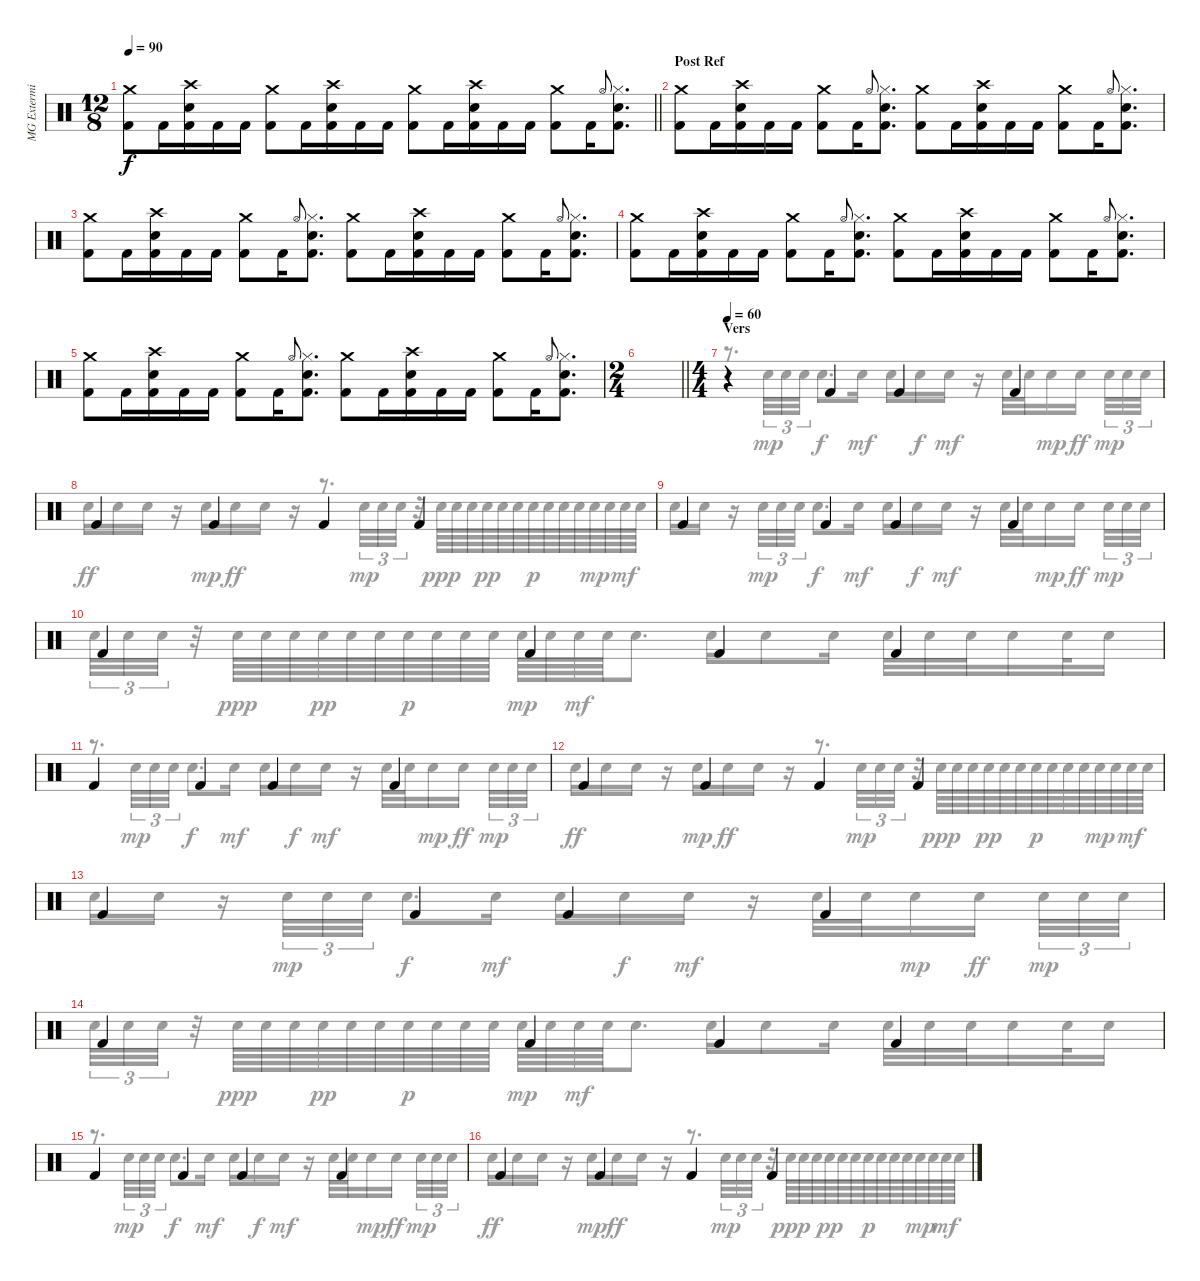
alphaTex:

\track ("MG Exterminator" "MG Extermi") {instrument percussion}
\staff {score}
\articulation defaults
\voice
\ts (12 8)
\tempo 90
\clef neutral
\barLineRight lightlight
\ks c
("Crash medium (hit)" "Kick (hit) 2").8{dy f} "Kick (hit) 2".16 ("Crash high (hit)" "Snare (hit) 2" "Kick (hit) 2").16 "Kick (hit) 2".16 "Kick (hit) 2".16 ("Crash medium (hit)" "Kick (hit) 2").8 "Kick (hit) 2".16 ("Crash high (hit)" "Snare (hit) 2" "Kick (hit) 2").16 "Kick (hit) 2".16 "Kick (hit) 2".16 ("Crash medium (hit)" "Kick (hit) 2").8 "Kick (hit) 2".16 ("Crash high (hit)" "Snare (hit) 2" "Kick (hit) 2").16 "Kick (hit) 2".16 "Kick (hit) 2".16 ("Crash medium (hit)" "Kick (hit) 2").8 "Kick (hit) 2".16 "Hi-Hat (open)".8{gr onbeat} ("Hi-Hat (closed)" "Snare (hit) 2" "Kick (hit) 2").8{d} |
\section ("" "Post Ref")
("Crash medium (hit)" "Kick (hit) 2").8 "Kick (hit) 2".16 ("Crash high (hit)" "Snare (hit) 2" "Kick (hit) 2").16 "Kick (hit) 2".16 "Kick (hit) 2".16 ("Crash medium (hit)" "Kick (hit) 2").8 "Kick (hit) 2".16 "Hi-Hat (open)".8{gr onbeat} ("Hi-Hat (closed)" "Snare (hit) 2" "Kick (hit) 2").8{d} ("Crash medium (hit)" "Kick (hit) 2").8 "Kick (hit) 2".16 ("Crash high (hit)" "Snare (hit) 2" "Kick (hit) 2").16 "Kick (hit) 2".16 "Kick (hit) 2".16 ("Crash medium (hit)" "Kick (hit) 2").8 "Kick (hit) 2".16 "Hi-Hat (open)".8{gr onbeat} ("Hi-Hat (closed)" "Snare (hit) 2" "Kick (hit) 2").8{d} |
("Crash medium (hit)" "Kick (hit) 2").8 "Kick (hit) 2".16 ("Crash high (hit)" "Snare (hit) 2" "Kick (hit) 2").16 "Kick (hit) 2".16 "Kick (hit) 2".16 ("Crash medium (hit)" "Kick (hit) 2").8 "Kick (hit) 2".16 "Hi-Hat (open)".8{gr onbeat} ("Hi-Hat (closed)" "Snare (hit) 2" "Kick (hit) 2").8{d} ("Crash medium (hit)" "Kick (hit) 2").8 "Kick (hit) 2".16 ("Crash high (hit)" "Snare (hit) 2" "Kick (hit) 2").16 "Kick (hit) 2".16 "Kick (hit) 2".16 ("Crash medium (hit)" "Kick (hit) 2").8 "Kick (hit) 2".16 "Hi-Hat (open)".8{gr onbeat} ("Hi-Hat (closed)" "Snare (hit) 2" "Kick (hit) 2").8{d} |
("Crash medium (hit)" "Kick (hit) 2").8 "Kick (hit) 2".16 ("Crash high (hit)" "Snare (hit) 2" "Kick (hit) 2").16 "Kick (hit) 2".16 "Kick (hit) 2".16 ("Crash medium (hit)" "Kick (hit) 2").8 "Kick (hit) 2".16 "Hi-Hat (open)".8{gr onbeat} ("Hi-Hat (closed)" "Snare (hit) 2" "Kick (hit) 2").8{d} ("Crash medium (hit)" "Kick (hit) 2").8 "Kick (hit) 2".16 ("Crash high (hit)" "Snare (hit) 2" "Kick (hit) 2").16 "Kick (hit) 2".16 "Kick (hit) 2".16 ("Crash medium (hit)" "Kick (hit) 2").8 "Kick (hit) 2".16 "Hi-Hat (open)".8{gr onbeat} ("Hi-Hat (closed)" "Snare (hit) 2" "Kick (hit) 2").8{d} |
("Crash medium (hit)" "Kick (hit) 2").8 "Kick (hit) 2".16 ("Crash high (hit)" "Snare (hit) 2" "Kick (hit) 2").16 "Kick (hit) 2".16 "Kick (hit) 2".16 ("Crash medium (hit)" "Kick (hit) 2").8 "Kick (hit) 2".16 "Hi-Hat (open)".8{gr onbeat} ("Hi-Hat (closed)" "Snare (hit) 2" "Kick (hit) 2").8{d} ("Crash medium (hit)" "Kick (hit) 2").8 "Kick (hit) 2".16 ("Crash high (hit)" "Snare (hit) 2" "Kick (hit) 2").16 "Kick (hit) 2".16 "Kick (hit) 2".16 ("Crash medium (hit)" "Kick (hit) 2").8 "Kick (hit) 2".16 "Hi-Hat (open)".8{gr onbeat} ("Hi-Hat (closed)" "Snare (hit) 2" "Kick (hit) 2").8{d} |
\ts (2 4)
\barLineRight lightlight
|
\ts (4 4)
\section ("" "Vers")
\tempo 60
r.4 "Kick (hit) 2".4 "Kick (hit) 2".4 "Kick (hit) 2".4 |
"Kick (hit) 2".4 "Kick (hit) 2".4 "Kick (hit) 2".4 "Kick (hit) 2".4 |
"Kick (hit) 2".4 "Kick (hit) 2".4 "Kick (hit) 2".4 "Kick (hit) 2".4 |
"Kick (hit) 2".4 "Kick (hit) 2".4 "Kick (hit) 2".4 "Kick (hit) 2".4 |
"Kick (hit) 2".4 "Kick (hit) 2".4 "Kick (hit) 2".4 "Kick (hit) 2".4 |
"Kick (hit) 2".4 "Kick (hit) 2".4 "Kick (hit) 2".4 "Kick (hit) 2".4 |
"Kick (hit) 2".4 "Kick (hit) 2".4 "Kick (hit) 2".4 "Kick (hit) 2".4 |
"Kick (hit) 2".4 "Kick (hit) 2".4 "Kick (hit) 2".4 "Kick (hit) 2".4 |
"Kick (hit) 2".4 "Kick (hit) 2".4 "Kick (hit) 2".4 "Kick (hit) 2".4 |
"Kick (hit) 2".4 "Kick (hit) 2".4 "Kick (hit) 2".4 "Kick (hit) 2".4
\voice
\clef neutral
\ottava regular
\simile none
\barLineRight lightlight
\ks c
|
|
|
|
|
\barLineRight lightlight
|
r.8{d} "Snare (hit) 2".32{tu (3 2) dy mp} "Snare (hit) 2".32{tu (3 2)} "Snare (hit) 2".32{tu (3 2)} "Snare (hit) 2".8{d dy f} "Snare (hit) 2".16{dy mf} "Snare (hit) 2".16 "Snare (hit) 2".16{dy f} "Snare (hit) 2".16{dy mf} r.16 "Snare (hit) 2".32 "Snare (hit) 2".32 "Snare (hit) 2".16{dy mp} "Snare (hit) 2".16{dy ff beam splitsecondary} "Snare (hit) 2".32{tu (3 2) dy mp} "Snare (hit) 2".32{tu (3 2)} "Snare (hit) 2".32{tu (3 2)} |
"Snare (hit) 2".16{dy ff} "Snare (hit) 2".16 "Snare (hit) 2".16 r.16 "Snare (hit) 2".16{dy mp} "Snare (hit) 2".16{dy ff} "Snare (hit) 2".16 r.16 r.8{d} "Snare (hit) 2".32{tu (3 2) dy mp} "Snare (hit) 2".32{tu (3 2)} "Snare (hit) 2".32{tu (3 2)} r.32 "Snare (hit) 2".64{dy ppp} "Snare (hit) 2".64 "Snare (hit) 2".64 "Snare (hit) 2".64{dy pp} "Snare (hit) 2".64 "Snare (hit) 2".64 "Snare (hit) 2".64{dy p} "Snare (hit) 2".64 "Snare (hit) 2".64 "Snare (hit) 2".64 "Snare (hit) 2".64{dy mp} "Snare (hit) 2".64 "Snare (hit) 2".64{dy mf} "Snare (hit) 2".64 |
"Snare (hit) 2".16 "Snare (hit) 2".16 r.16 "Snare (hit) 2".32{tu (3 2) dy mp} "Snare (hit) 2".32{tu (3 2)} "Snare (hit) 2".32{tu (3 2)} "Snare (hit) 2".8{d dy f} "Snare (hit) 2".16{dy mf} "Snare (hit) 2".16 "Snare (hit) 2".16{dy f} "Snare (hit) 2".16{dy mf} r.16 "Snare (hit) 2".32 "Snare (hit) 2".32 "Snare (hit) 2".16{dy mp} "Snare (hit) 2".16{dy ff beam splitsecondary} "Snare (hit) 2".32{tu (3 2) dy mp} "Snare (hit) 2".32{tu (3 2)} "Snare (hit) 2".32{tu (3 2)} |
"Snare (hit) 2".32{tu (3 2)} "Snare (hit) 2".32{tu (3 2)} "Snare (hit) 2".32{tu (3 2)} r.32 "Snare (hit) 2".64{dy ppp} "Snare (hit) 2".64 "Snare (hit) 2".64 "Snare (hit) 2".64{dy pp} "Snare (hit) 2".64 "Snare (hit) 2".64 "Snare (hit) 2".64{dy p} "Snare (hit) 2".64 "Snare (hit) 2".64 "Snare (hit) 2".64 "Snare (hit) 2".64{dy mp} "Snare (hit) 2".64 "Snare (hit) 2".64{dy mf} "Snare (hit) 2".64 "Snare (hit) 2".8{d} "Snare (hit) 2".16 "Snare (hit) 2".8 "Snare (hit) 2".16 "Snare (hit) 2".32 "Snare (hit) 2".32 "Snare (hit) 2".32 "Snare (hit) 2".16 "Snare (hit) 2".32 "Snare (hit) 2".16 |
r.8{d} "Snare (hit) 2".32{tu (3 2) dy mp} "Snare (hit) 2".32{tu (3 2)} "Snare (hit) 2".32{tu (3 2)} "Snare (hit) 2".8{d dy f} "Snare (hit) 2".16{dy mf} "Snare (hit) 2".16 "Snare (hit) 2".16{dy f} "Snare (hit) 2".16{dy mf} r.16 "Snare (hit) 2".32 "Snare (hit) 2".32 "Snare (hit) 2".16{dy mp} "Snare (hit) 2".16{dy ff beam splitsecondary} "Snare (hit) 2".32{tu (3 2) dy mp} "Snare (hit) 2".32{tu (3 2)} "Snare (hit) 2".32{tu (3 2)} |
"Snare (hit) 2".16{dy ff} "Snare (hit) 2".16 "Snare (hit) 2".16 r.16 "Snare (hit) 2".16{dy mp} "Snare (hit) 2".16{dy ff} "Snare (hit) 2".16 r.16 r.8{d} "Snare (hit) 2".32{tu (3 2) dy mp} "Snare (hit) 2".32{tu (3 2)} "Snare (hit) 2".32{tu (3 2)} r.32 "Snare (hit) 2".64{dy ppp} "Snare (hit) 2".64 "Snare (hit) 2".64 "Snare (hit) 2".64{dy pp} "Snare (hit) 2".64 "Snare (hit) 2".64 "Snare (hit) 2".64{dy p} "Snare (hit) 2".64 "Snare (hit) 2".64 "Snare (hit) 2".64 "Snare (hit) 2".64{dy mp} "Snare (hit) 2".64 "Snare (hit) 2".64{dy mf} "Snare (hit) 2".64 |
"Snare (hit) 2".16 "Snare (hit) 2".16 r.16 "Snare (hit) 2".32{tu (3 2) dy mp} "Snare (hit) 2".32{tu (3 2)} "Snare (hit) 2".32{tu (3 2)} "Snare (hit) 2".8{d dy f} "Snare (hit) 2".16{dy mf} "Snare (hit) 2".16 "Snare (hit) 2".16{dy f} "Snare (hit) 2".16{dy mf} r.16 "Snare (hit) 2".32 "Snare (hit) 2".32 "Snare (hit) 2".16{dy mp} "Snare (hit) 2".16{dy ff beam splitsecondary} "Snare (hit) 2".32{tu (3 2) dy mp} "Snare (hit) 2".32{tu (3 2)} "Snare (hit) 2".32{tu (3 2)} |
"Snare (hit) 2".32{tu (3 2)} "Snare (hit) 2".32{tu (3 2)} "Snare (hit) 2".32{tu (3 2)} r.32 "Snare (hit) 2".64{dy ppp} "Snare (hit) 2".64 "Snare (hit) 2".64 "Snare (hit) 2".64{dy pp} "Snare (hit) 2".64 "Snare (hit) 2".64 "Snare (hit) 2".64{dy p} "Snare (hit) 2".64 "Snare (hit) 2".64 "Snare (hit) 2".64 "Snare (hit) 2".64{dy mp} "Snare (hit) 2".64 "Snare (hit) 2".64{dy mf} "Snare (hit) 2".64 "Snare (hit) 2".8{d} "Snare (hit) 2".16 "Snare (hit) 2".8 "Snare (hit) 2".16 "Snare (hit) 2".32 "Snare (hit) 2".32 "Snare (hit) 2".32 "Snare (hit) 2".16 "Snare (hit) 2".32 "Snare (hit) 2".16 |
r.8{d} "Snare (hit) 2".32{tu (3 2) dy mp} "Snare (hit) 2".32{tu (3 2)} "Snare (hit) 2".32{tu (3 2)} "Snare (hit) 2".8{d dy f} "Snare (hit) 2".16{dy mf} "Snare (hit) 2".16 "Snare (hit) 2".16{dy f} "Snare (hit) 2".16{dy mf} r.16 "Snare (hit) 2".32 "Snare (hit) 2".32 "Snare (hit) 2".16{dy mp} "Snare (hit) 2".16{dy ff beam splitsecondary} "Snare (hit) 2".32{tu (3 2) dy mp} "Snare (hit) 2".32{tu (3 2)} "Snare (hit) 2".32{tu (3 2)} |
"Snare (hit) 2".16{dy ff} "Snare (hit) 2".16 "Snare (hit) 2".16 r.16 "Snare (hit) 2".16{dy mp} "Snare (hit) 2".16{dy ff} "Snare (hit) 2".16 r.16 r.8{d} "Snare (hit) 2".32{tu (3 2) dy mp} "Snare (hit) 2".32{tu (3 2)} "Snare (hit) 2".32{tu (3 2)} r.32 "Snare (hit) 2".64{dy ppp} "Snare (hit) 2".64 "Snare (hit) 2".64 "Snare (hit) 2".64{dy pp} "Snare (hit) 2".64 "Snare (hit) 2".64 "Snare (hit) 2".64{dy p} "Snare (hit) 2".64 "Snare (hit) 2".64 "Snare (hit) 2".64 "Snare (hit) 2".64{dy mp} "Snare (hit) 2".64 "Snare (hit) 2".64{dy mf} "Snare (hit) 2".64
